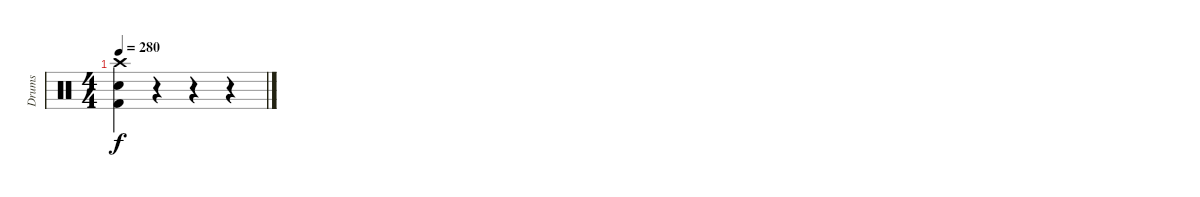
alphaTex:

\track ("Drums" "Drums") {instrument percussion}
\staff {score}
\articulation defaults
\ts (4 4)
\tempo 280
\clef neutral
\ks c
("Crash high (hit)" "Snare (hit) 2" "Kick (hit) 2").4{dy f} r.4 r.4 r.4
